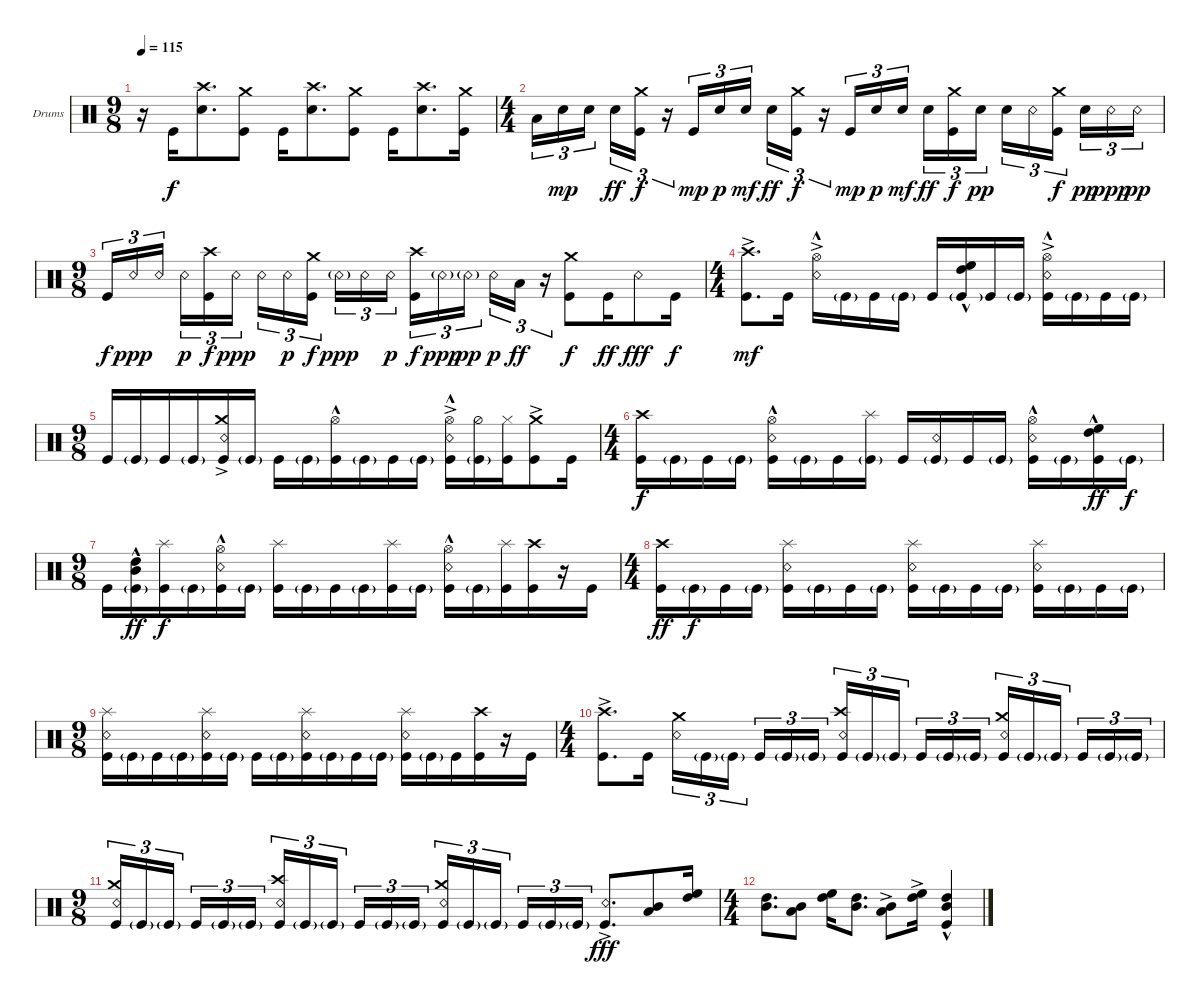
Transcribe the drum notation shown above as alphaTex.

\defaultSystemsLayout 4
\bracketExtendMode groupsimilarinstruments
\firstSystemTrackNameOrientation horizontal
\otherSystemsTrackNameOrientation horizontal
\track ("Batterie " "Drums") {instrument percussion}
\staff {score}
\articulation defaults
\ts (9 8)
\tempo 115
\clef neutral
\ks c
r.16{dy f} "Kick (hit)".16 ("Crash high (hit)" "Snare (hit) 2").8{d} ("Kick (hit)" "Crash medium (hit)").8 "Kick (hit)".16 ("Snare (hit) 2" "Crash high (hit)").8{d} ("Kick (hit)" "Crash medium (hit)").8 "Kick (hit)".16 ("Snare (hit) 2" "Crash high (hit)").8{d} ("Kick (hit)" "Crash medium (hit)").16 |
\ts (4 4)
"Low Tom (hit)".16{tu (3 2)} "Snare (hit) 2".16{tu (3 2) dy mp} "Snare (hit) 2".16{tu (3 2)} "Snare (hit) 2".16{tu (3 2) dy ff} ("Kick (hit)" "Crash medium (hit)").16{tu (3 2) dy f} r.16{tu (3 2)} "Kick (hit)".16{tu (3 2) dy mp} "Snare (hit) 2".16{tu (3 2) dy p} "Snare (hit) 2".16{tu (3 2) dy mf} "Snare (hit) 2".16{tu (3 2) dy ff} ("Kick (hit)" "Crash medium (hit)").16{tu (3 2) dy f} r.16{tu (3 2)} "Kick (hit)".16{tu (3 2) dy mp} "Snare (hit) 2".16{tu (3 2) dy p} "Snare (hit) 2".16{tu (3 2) dy mf} "Snare (hit) 2".16{tu (3 2) dy ff} ("Kick (hit)" "Crash medium (hit)").16{tu (3 2) dy f} "Snare (hit) 2".16{tu (3 2) dy pp} "Snare (hit) 2".16{tu (3 2)} "Snare (rim shot)".16{tu (3 2)} ("Kick (hit)" "Crash medium (hit)").16{tu (3 2) dy f} "Snare (hit) 2".16{tu (3 2) dy pp} "Snare (rim shot)".16{tu (3 2) dy ppp} "Snare (rim shot)".16{tu (3 2) dy pp} |
\ts (9 8)
"Kick (hit)".16{tu (3 2) dy f} "Snare (rim shot)".16{tu (3 2) dy ppp} "Snare (rim shot)".16{tu (3 2)} "Snare (rim shot)".16{tu (3 2) dy p} ("Kick (hit)" "Crash high (hit)").16{tu (3 2) dy f} "Snare (rim shot)".16{tu (3 2) dy ppp} "Snare (rim shot)".16{tu (3 2)} "Snare (rim shot)".16{tu (3 2) dy p} ("Kick (hit)" "Crash medium (hit)").16{tu (3 2) dy f} "Snare (rim shot)"{g}.16{tu (3 2) dy ppp} "Snare (rim shot)".16{tu (3 2)} "Snare (rim shot)".16{tu (3 2) dy p} ("Kick (hit)" "Crash high (hit)").16{tu (3 2) dy f} "Snare (rim shot)"{g}.16{tu (3 2) dy ppp} "Snare (rim shot)"{g}.16{tu (3 2) dy pp} "Snare (rim shot)".16{tu (3 2) dy p} "Low Tom (hit)".16{tu (3 2) dy ff} r.16{tu (3 2)} ("Kick (hit)" "Crash medium (hit)").8{dy f} "Kick (hit)".16{dy ff} "Snare (rim shot)".8{dy fff} "Kick (hit)".16{dy f} |
\ts (4 4)
("Kick (hit)" "Crash high (hit)"{ac}).8{d dy mf} "Kick (hit)".16 ("Snare (rim shot)"{ac} "Hi-Hat (open)"{hac}).16 "Kick (hit)"{g}.16 "Kick (hit)".16 "Kick (hit)"{g}.16 "Kick (hit)".16 ("Kick (hit)"{g} "High Tom (hit)"{hac} "High Floor Tom (hit)"{hac}).16 "Kick (hit)".16 "Kick (hit)"{g}.16 ("Kick (hit)" "Snare (rim shot)"{ac} "Hi-Hat (open)"{hac}).16 "Kick (hit)"{g}.16 "Kick (hit)".16 "Kick (hit)"{g}.16 |
\ts (9 8)
"Kick (hit)".16 "Kick (hit)"{g}.16 "Kick (hit)".16 "Kick (hit)"{g}.16 ("Kick (hit)" "Snare (rim shot)"{ac} "Crash medium (hit)"{ac}).16 "Kick (hit)"{g}.16 "Kick (hit)".16 "Kick (hit)"{g}.16 ("Kick (hit)" "Hi-Hat (open)"{hac}).16 "Kick (hit)"{g}.16 "Kick (hit)".16 "Kick (hit)"{g}.16 ("Kick (hit)" "Snare (rim shot)"{ac} "Hi-Hat (open)"{hac}).16 ("Kick (hit)"{g} "Hi-Hat (half)").16 ("Kick (hit)" "Hi-Hat (closed)").16 ("Kick (hit)"{ac} "Crash medium (hit)"{ac}).8 "Kick (hit)".16 |
\ts (4 4)
("Kick (hit)" "Crash high (hit)").16{dy f} "Kick (hit)"{g}.16 "Kick (hit)".16 "Kick (hit)"{g}.16 ("Kick (hit)" "Snare (rim shot)" "Hi-Hat (open)"{hac}).16 "Kick (hit)"{g}.16 "Kick (hit)".16 ("Kick (hit)"{g} "Splash (hit)").16 "Kick (hit)".16 ("Kick (hit)"{g} "Snare (rim shot)").16 "Kick (hit)".16 "Kick (hit)"{g}.16 ("Kick (hit)" "Snare (rim shot)" "Hi-Hat (open)"{hac}).16 "Kick (hit)"{g}.16 ("Kick (hit)" "High Tom (hit)"{hac} "High Floor Tom (hit)"{hac}).16{dy ff} "Kick (hit)"{g}.16{dy f} |
\ts (9 8)
"Kick (hit)".16 ("Kick (hit)"{g} "Mid Tom (hit)"{hac} "High Tom (hit)"{hac}).16{dy ff} ("Kick (hit)" "Splash (hit)").16{dy f} "Kick (hit)"{g}.16 ("Kick (hit)" "Snare (rim shot)" "Hi-Hat (open)"{hac}).16 "Kick (hit)"{g}.16 ("Kick (hit)" "Splash (hit)").16 "Kick (hit)"{g}.16 "Kick (hit)".16 "Kick (hit)"{g}.16 ("Kick (hit)" "Splash (hit)").16 "Kick (hit)"{g}.16 ("Kick (hit)" "Snare (rim shot)" "Hi-Hat (open)"{hac}).16 "Kick (hit)"{g}.16 ("Kick (hit)" "Splash (hit)").16 ("Kick (hit)" "Crash high (hit)").16 r.16 "Kick (hit)".16 |
\ts (4 4)
("Kick (hit)" "Crash high (hit)").16{dy ff} "Kick (hit)"{g}.16{dy f} "Kick (hit)".16 "Kick (hit)"{g}.16 ("Kick (hit)" "Snare (rim shot)" "Splash (hit)").16 "Kick (hit)"{g}.16 "Kick (hit)".16 "Kick (hit)"{g}.16 ("Kick (hit)" "Snare (rim shot)" "Splash (hit)").16 "Kick (hit)"{g}.16 "Kick (hit)".16 "Kick (hit)"{g}.16 ("Kick (hit)" "Snare (rim shot)" "Splash (hit)").16 "Kick (hit)"{g}.16 "Kick (hit)".16 "Kick (hit)"{g}.16 |
\ts (9 8)
("Kick (hit)" "Snare (rim shot)" "Splash (hit)").16 "Kick (hit)"{g}.16 "Kick (hit)".16 "Kick (hit)"{g}.16 ("Kick (hit)" "Snare (rim shot)" "Splash (hit)").16 "Kick (hit)"{g}.16 "Kick (hit)".16 "Kick (hit)"{g}.16 ("Kick (hit)" "Snare (rim shot)" "Splash (hit)").16 "Kick (hit)"{g}.16 "Kick (hit)".16 "Kick (hit)"{g}.16 ("Kick (hit)" "Snare (rim shot)" "Splash (hit)").16 "Kick (hit)"{g}.16 "Kick (hit)".16 ("Kick (hit)" "Crash high (hit)").16 r.16 "Kick (hit)".16 |
\ts (4 4)
("Kick (hit)" "Crash high (hit)"{ac}).8{d} "Kick (hit)".16 ("Snare (rim shot)" "Crash medium (hit)").16{tu (3 2)} "Kick (hit)"{g}.16{tu (3 2)} "Kick (hit)"{g}.16{tu (3 2)} "Kick (hit)".16{tu (3 2)} "Kick (hit)"{g}.16{tu (3 2)} "Kick (hit)"{g}.16{tu (3 2)} ("Kick (hit)" "Snare (rim shot)" "Crash high (hit)").16{tu (3 2)} "Kick (hit)"{g}.16{tu (3 2)} "Kick (hit)"{g}.16{tu (3 2)} "Kick (hit)".16{tu (3 2)} "Kick (hit)"{g}.16{tu (3 2)} "Kick (hit)"{g}.16{tu (3 2)} ("Kick (hit)" "Snare (rim shot)" "Crash medium (hit)").16{tu (3 2)} "Kick (hit)"{g}.16{tu (3 2)} "Kick (hit)"{g}.16{tu (3 2)} "Kick (hit)".16{tu (3 2)} "Kick (hit)"{g}.16{tu (3 2)} "Kick (hit)"{g}.16{tu (3 2)} |
\ts (9 8)
("Kick (hit)" "Snare (rim shot)" "Crash medium (hit)").16{tu (3 2)} "Kick (hit)"{g}.16{tu (3 2)} "Kick (hit)"{g}.16{tu (3 2)} "Kick (hit)".16{tu (3 2)} "Kick (hit)"{g}.16{tu (3 2)} "Kick (hit)"{g}.16{tu (3 2)} ("Kick (hit)" "Snare (rim shot)" "Crash high (hit)").16{tu (3 2)} "Kick (hit)"{g}.16{tu (3 2)} "Kick (hit)"{g}.16{tu (3 2)} "Kick (hit)".16{tu (3 2)} "Kick (hit)"{g}.16{tu (3 2)} "Kick (hit)"{g}.16{tu (3 2)} ("Kick (hit)" "Snare (rim shot)" "Crash medium (hit)").16{tu (3 2)} "Kick (hit)"{g}.16{tu (3 2)} "Kick (hit)"{g}.16{tu (3 2)} "Kick (hit)".16{tu (3 2)} "Kick (hit)"{g}.16{tu (3 2)} "Kick (hit)"{g}.16{tu (3 2)} ("Kick (hit)" "Snare (rim shot)"{ac}).8{d dy fff} ("Mid Tom (hit)" "Low Tom (hit)").8 ("High Floor Tom (hit)" "High Tom (hit)").16 |
\ts (4 4)
("High Tom (hit)" "Mid Tom (hit)").8{d} ("Mid Tom (hit)" "Low Tom (hit)").8 ("High Floor Tom (hit)" "High Tom (hit)").16 ("High Tom (hit)" "Mid Tom (hit)").8{d} ("Mid Tom (hit)"{ac} "Low Tom (hit)"{ac}).8 ("High Floor Tom (hit)" "High Tom (hit)"{ac}).16 ("High Tom (hit)"{hac} "Mid Tom (hit)"{hac} "Kick (hit)"{hac}).4
